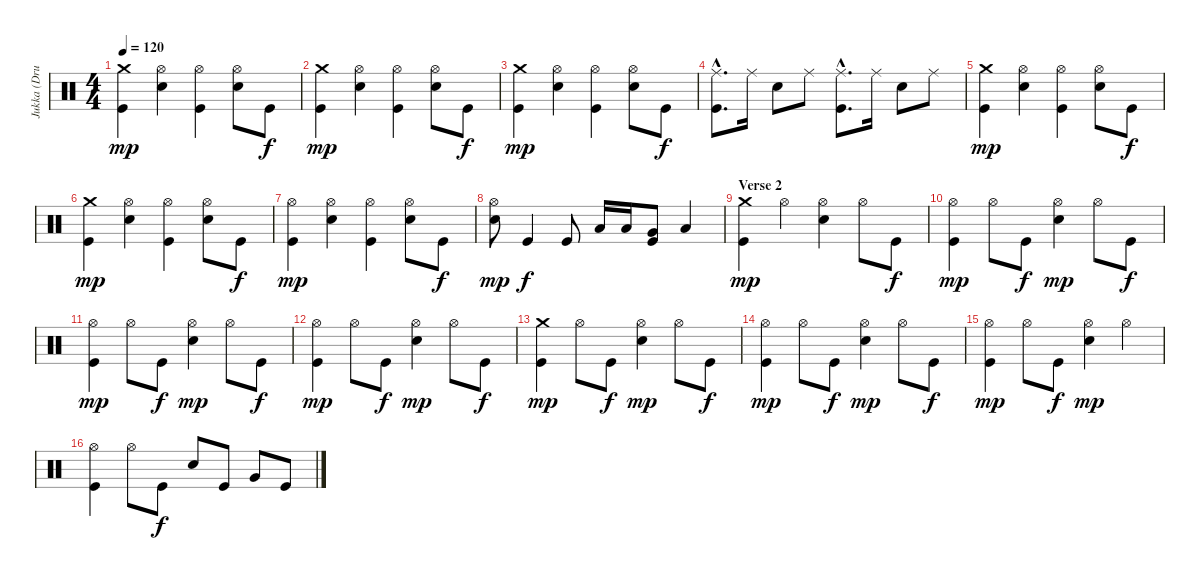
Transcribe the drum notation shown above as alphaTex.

\track ("Jukka (Drums)" "Jukka (Dru") {instrument percussion}
\staff {score}
\articulation defaults
\ts (4 4)
\tempo 120
\clef neutral
\ks c
("Crash medium (hit)" "Kick (hit)").4{dy mp} ("Hi-Hat (open)" "Electric Snare (hit)").4 ("Hi-Hat (open)" "Kick (hit)").4 ("Hi-Hat (open)" "Electric Snare (hit)").8 "Kick (hit)".8{dy f} |
("Crash medium (hit)" "Kick (hit)").4{dy mp} ("Hi-Hat (open)" "Electric Snare (hit)").4 ("Hi-Hat (open)" "Kick (hit)").4 ("Hi-Hat (open)" "Electric Snare (hit)").8 "Kick (hit)".8{dy f} |
("Crash medium (hit)" "Kick (hit)").4{dy mp} ("Hi-Hat (open)" "Electric Snare (hit)").4 ("Hi-Hat (open)" "Kick (hit)").4 ("Hi-Hat (open)" "Electric Snare (hit)").8 "Kick (hit)".8{dy f} |
("Ride (middle)"{hac} "Kick (hit)"{hac}).8{d} "Ride (middle)".16 "Electric Snare (hit)".8 "Ride (middle)".8 ("Ride (middle)"{hac} "Kick (hit)"{hac}).8{d} "Ride (middle)".16 "Electric Snare (hit)".8 "Ride (middle)".8 |
("Crash medium (hit)" "Kick (hit)").4{dy mp} ("Hi-Hat (open)" "Electric Snare (hit)").4 ("Hi-Hat (open)" "Kick (hit)").4 ("Hi-Hat (open)" "Electric Snare (hit)").8 "Kick (hit)".8{dy f} |
("Crash medium (hit)" "Kick (hit)").4{dy mp} ("Hi-Hat (open)" "Electric Snare (hit)").4 ("Hi-Hat (open)" "Kick (hit)").4 ("Hi-Hat (open)" "Electric Snare (hit)").8 "Kick (hit)".8{dy f} |
("Hi-Hat (open)" "Kick (hit)").4{dy mp} ("Hi-Hat (open)" "Electric Snare (hit)").4 ("Hi-Hat (open)" "Kick (hit)").4 ("Hi-Hat (open)" "Electric Snare (hit)").8 "Kick (hit)".8{dy f} |
("Hi-Hat (open)" "Electric Snare (hit)").8{dy mp} "Kick (hit)".4{dy f} "Kick (hit)".8 "Low Tom (hit)".16 "Low Tom (hit)".16 ("Very Low Tom (hit)" "Kick (hit)").8 "Low Floor Tom (hit)".4 |
\section ("" "Verse 2")
("Crash medium (hit)" "Kick (hit)").4{dy mp} "Hi-Hat (open)".4 ("Hi-Hat (open)" "Electric Snare (hit)").4 "Hi-Hat (open)".8 "Kick (hit)".8{dy f} |
("Hi-Hat (open)" "Kick (hit)").4{dy mp} "Hi-Hat (open)".8 "Kick (hit)".8{dy f} ("Hi-Hat (open)" "Electric Snare (hit)").4{dy mp} "Hi-Hat (open)".8 "Kick (hit)".8{dy f} |
("Hi-Hat (open)" "Kick (hit)").4{dy mp} "Hi-Hat (open)".8 "Kick (hit)".8{dy f} ("Hi-Hat (open)" "Electric Snare (hit)").4{dy mp} "Hi-Hat (open)".8 "Kick (hit)".8{dy f} |
("Hi-Hat (open)" "Kick (hit)").4{dy mp} "Hi-Hat (open)".8 "Kick (hit)".8{dy f} ("Hi-Hat (open)" "Electric Snare (hit)").4{dy mp} "Hi-Hat (open)".8 "Kick (hit)".8{dy f} |
("Crash medium (hit)" "Kick (hit)").4{dy mp} "Hi-Hat (open)".8 "Kick (hit)".8{dy f} ("Hi-Hat (open)" "Electric Snare (hit)").4{dy mp} "Hi-Hat (open)".8 "Kick (hit)".8{dy f} |
("Hi-Hat (open)" "Kick (hit)").4{dy mp} "Hi-Hat (open)".8 "Kick (hit)".8{dy f} ("Hi-Hat (open)" "Electric Snare (hit)").4{dy mp} "Hi-Hat (open)".8 "Kick (hit)".8{dy f} |
("Hi-Hat (open)" "Kick (hit)").4{dy mp} "Hi-Hat (open)".8 "Kick (hit)".8{dy f} ("Hi-Hat (open)" "Electric Snare (hit)").4{dy mp} "Hi-Hat (open)".4 |
("Hi-Hat (open)" "Kick (hit)").4 "Hi-Hat (open)".8 "Kick (hit)".8{dy f} "Electric Snare (hit)".8 "Kick (hit)".8 "Very Low Tom (hit)".8 "Kick (hit)".8
